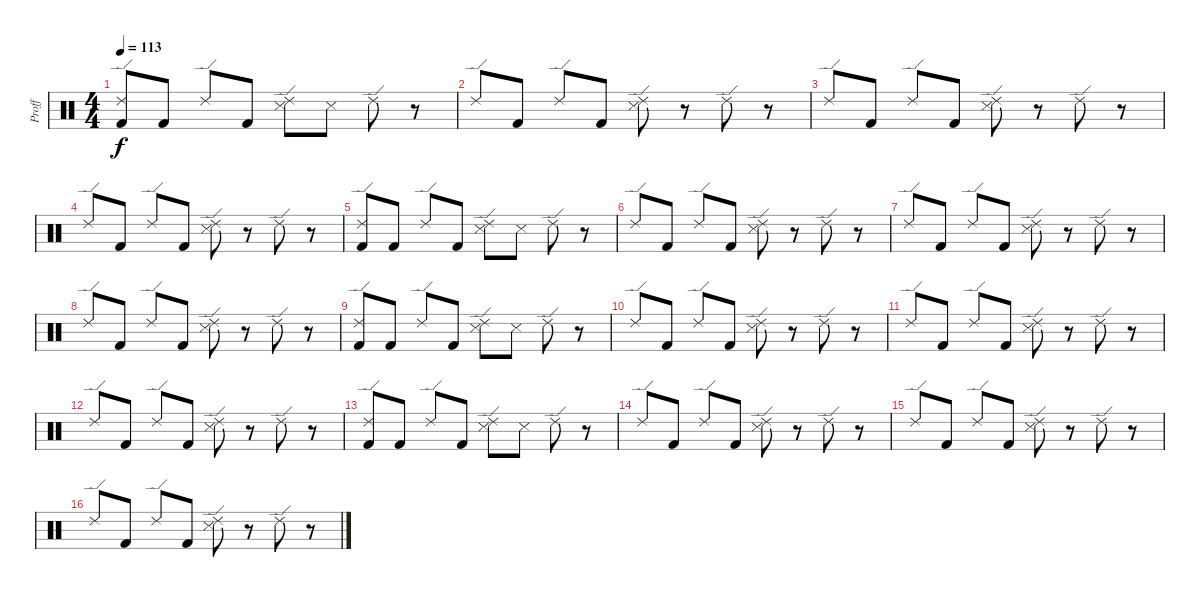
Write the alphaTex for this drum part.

\track ("Proff" "Proff") {instrument percussion}
\staff {score}
\articulation defaults
\ts (4 4)
\tempo 113
\clef neutral
\ks c
("Ride (edge) 2" "Kick (hit) 2").8{dy f} "Kick (hit) 2".8 "Ride (edge) 2".8 "Kick (hit) 2".8 ("Ride (edge) 2" "Metronome (hit)").8 "Metronome (hit)".8 "Ride (edge) 2".8 r.8 |
"Ride (edge) 2".8 "Kick (hit) 2".8 "Ride (edge) 2".8 "Kick (hit) 2".8 ("Ride (edge) 2" "Metronome (hit)").8 r.8 "Ride (edge) 2".8 r.8 |
"Ride (edge) 2".8 "Kick (hit) 2".8 "Ride (edge) 2".8 "Kick (hit) 2".8 ("Ride (edge) 2" "Metronome (hit)").8 r.8 "Ride (edge) 2".8 r.8 |
"Ride (edge) 2".8 "Kick (hit) 2".8 "Ride (edge) 2".8 "Kick (hit) 2".8 ("Ride (edge) 2" "Metronome (hit)").8 r.8 "Ride (edge) 2".8 r.8 |
("Ride (edge) 2" "Kick (hit) 2").8 "Kick (hit) 2".8 "Ride (edge) 2".8 "Kick (hit) 2".8 ("Ride (edge) 2" "Metronome (hit)").8 "Metronome (hit)".8 "Ride (edge) 2".8 r.8 |
"Ride (edge) 2".8 "Kick (hit) 2".8 "Ride (edge) 2".8 "Kick (hit) 2".8 ("Ride (edge) 2" "Metronome (hit)").8 r.8 "Ride (edge) 2".8 r.8 |
"Ride (edge) 2".8 "Kick (hit) 2".8 "Ride (edge) 2".8 "Kick (hit) 2".8 ("Ride (edge) 2" "Metronome (hit)").8 r.8 "Ride (edge) 2".8 r.8 |
"Ride (edge) 2".8 "Kick (hit) 2".8 "Ride (edge) 2".8 "Kick (hit) 2".8 ("Ride (edge) 2" "Metronome (hit)").8 r.8 "Ride (edge) 2".8 r.8 |
("Ride (edge) 2" "Kick (hit) 2").8 "Kick (hit) 2".8 "Ride (edge) 2".8 "Kick (hit) 2".8 ("Ride (edge) 2" "Metronome (hit)").8 "Metronome (hit)".8 "Ride (edge) 2".8 r.8 |
"Ride (edge) 2".8 "Kick (hit) 2".8 "Ride (edge) 2".8 "Kick (hit) 2".8 ("Ride (edge) 2" "Metronome (hit)").8 r.8 "Ride (edge) 2".8 r.8 |
"Ride (edge) 2".8 "Kick (hit) 2".8 "Ride (edge) 2".8 "Kick (hit) 2".8 ("Ride (edge) 2" "Metronome (hit)").8 r.8 "Ride (edge) 2".8 r.8 |
"Ride (edge) 2".8 "Kick (hit) 2".8 "Ride (edge) 2".8 "Kick (hit) 2".8 ("Ride (edge) 2" "Metronome (hit)").8 r.8 "Ride (edge) 2".8 r.8 |
("Ride (edge) 2" "Kick (hit) 2").8 "Kick (hit) 2".8 "Ride (edge) 2".8 "Kick (hit) 2".8 ("Ride (edge) 2" "Metronome (hit)").8 "Metronome (hit)".8 "Ride (edge) 2".8 r.8 |
"Ride (edge) 2".8 "Kick (hit) 2".8 "Ride (edge) 2".8 "Kick (hit) 2".8 ("Ride (edge) 2" "Metronome (hit)").8 r.8 "Ride (edge) 2".8 r.8 |
"Ride (edge) 2".8 "Kick (hit) 2".8 "Ride (edge) 2".8 "Kick (hit) 2".8 ("Ride (edge) 2" "Metronome (hit)").8 r.8 "Ride (edge) 2".8 r.8 |
"Ride (edge) 2".8 "Kick (hit) 2".8 "Ride (edge) 2".8 "Kick (hit) 2".8 ("Ride (edge) 2" "Metronome (hit)").8 r.8 "Ride (edge) 2".8 r.8
